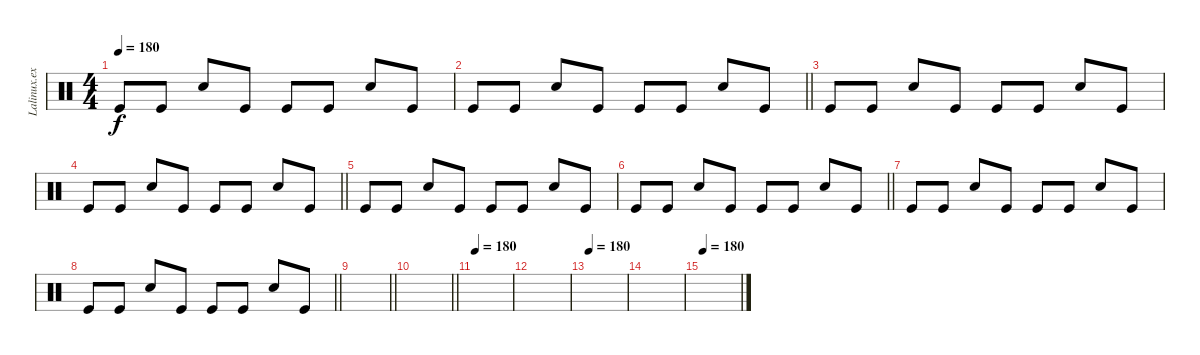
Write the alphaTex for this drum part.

\track ("Lalinux.exe" "Lalinux.ex") {instrument percussion}
\staff {score}
\articulation defaults
\ts (4 4)
\tempo 180
\clef neutral
\ks c "Kick (hit)".8{dy f} "Kick (hit)".8 "Electric Snare (hit)".8 "Kick (hit)".8 "Kick (hit)".8 "Kick (hit)".8 "Electric Snare (hit)".8 "Kick (hit)".8
|
\barLineRight lightlight "Kick (hit)".8 "Kick (hit)".8 "Electric Snare (hit)".8 "Kick (hit)".8 "Kick (hit)".8 "Kick (hit)".8 "Electric Snare (hit)".8 "Kick (hit)".8
|
"Kick (hit)".8 "Kick (hit)".8 "Electric Snare (hit)".8 "Kick (hit)".8 "Kick (hit)".8 "Kick (hit)".8 "Electric Snare (hit)".8 "Kick (hit)".8 |
\barLineRight lightlight "Kick (hit)".8 "Kick (hit)".8 "Electric Snare (hit)".8 "Kick (hit)".8 "Kick (hit)".8 "Kick (hit)".8 "Electric Snare (hit)".8 "Kick (hit)".8
|
"Kick (hit)".8 "Kick (hit)".8 "Electric Snare (hit)".8 "Kick (hit)".8 "Kick (hit)".8 "Kick (hit)".8 "Electric Snare (hit)".8 "Kick (hit)".8 |
\barLineRight lightlight "Kick (hit)".8 "Kick (hit)".8 "Electric Snare (hit)".8 "Kick (hit)".8 "Kick (hit)".8 "Kick (hit)".8 "Electric Snare (hit)".8 "Kick (hit)".8
|
"Kick (hit)".8 "Kick (hit)".8 "Electric Snare (hit)".8 "Kick (hit)".8 "Kick (hit)".8 "Kick (hit)".8 "Electric Snare (hit)".8 "Kick (hit)".8 |
\barLineRight lightlight "Kick (hit)".8 "Kick (hit)".8 "Electric Snare (hit)".8 "Kick (hit)".8 "Kick (hit)".8 "Kick (hit)".8 "Electric Snare (hit)".8 "Kick (hit)".8
|
\barLineRight lightlight
|
\barLineRight lightlight
|
\section ("" "")
\tempo 180
|
|
\tempo 180
|
|
\tempo 180
